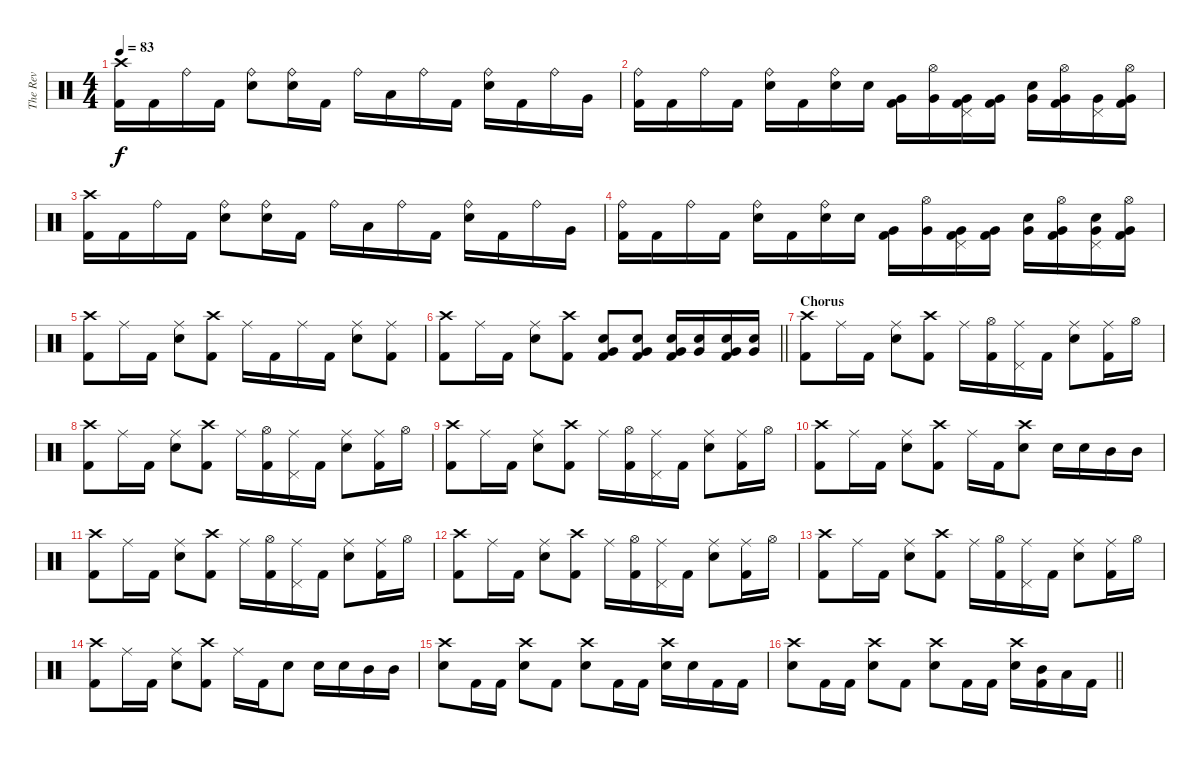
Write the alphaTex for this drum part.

\track ("The Rev" "The Rev") {instrument percussion}
\staff {score}
\articulation defaults
\ts (4 4)
\tempo 83
\clef neutral
\ks c
("Crash high (hit)" "Kick (hit) 2").16{dy f} "Kick (hit) 2".16 "Ride (bell)".16 "Kick (hit) 2".16 ("Ride (bell)" "Snare (hit) 2").8 ("Ride (bell)" "Snare (hit) 2").16 "Kick (hit) 2".16 "Ride (bell)".16 "Low Tom (hit)".16 "Ride (bell)".16 "Kick (hit) 2".16 ("Ride (bell)" "Snare (hit) 2").16 "Kick (hit) 2".16 "Ride (bell)".16 "Very Low Tom (hit)".16 |
("Ride (bell)" "Kick (hit) 2").16 "Kick (hit) 2".16 "Ride (bell)".16 "Kick (hit) 2".16 ("Ride (bell)" "Snare (hit) 2").16 "Kick (hit) 2".16 ("Ride (bell)" "Snare (hit) 2").16 "Snare (hit) 2".16 ("Very Low Tom (hit)" "Kick (hit) 2").16 ("Hi-Hat (open)" "Very Low Tom (hit)").16 ("Very Low Tom (hit)" "Pedal Hi-Hat (hit)" "Kick (hit) 2").16 ("Very Low Tom (hit)" "Kick (hit) 2").16 ("Snare (hit) 2" "Very Low Tom (hit)").16 ("Hi-Hat (open)" "Very Low Tom (hit)" "Kick (hit) 2").16 ("Very Low Tom (hit)" "Pedal Hi-Hat (hit)").16 ("Hi-Hat (open)" "Very Low Tom (hit)" "Kick (hit) 2").16 |
("Crash high (hit)" "Kick (hit) 2").16 "Kick (hit) 2".16 "Ride (bell)".16 "Kick (hit) 2".16 ("Ride (bell)" "Snare (hit) 2").8 ("Ride (bell)" "Snare (hit) 2").16 "Kick (hit) 2".16 "Ride (bell)".16 "Low Tom (hit)".16 "Ride (bell)".16 "Kick (hit) 2".16 ("Ride (bell)" "Snare (hit) 2").16 "Kick (hit) 2".16 "Ride (bell)".16 "Very Low Tom (hit)".16 |
("Ride (bell)" "Kick (hit) 2").16 "Kick (hit) 2".16 "Ride (bell)".16 "Kick (hit) 2".16 ("Ride (bell)" "Snare (hit) 2").16 "Kick (hit) 2".16 ("Ride (bell)" "Snare (hit) 2").16 "Snare (hit) 2".16 ("Very Low Tom (hit)" "Kick (hit) 2").16 ("Hi-Hat (open)" "Very Low Tom (hit)").16 ("Very Low Tom (hit)" "Pedal Hi-Hat (hit)" "Kick (hit) 2").16 ("Very Low Tom (hit)" "Kick (hit) 2").16 ("Snare (hit) 2" "Very Low Tom (hit)").16 ("Hi-Hat (open)" "Very Low Tom (hit)" "Kick (hit) 2").16 ("Snare (hit) 2" "Very Low Tom (hit)" "Pedal Hi-Hat (hit)").16 ("Hi-Hat (open)" "Very Low Tom (hit)" "Kick (hit) 2").16 |
("Crash high (hit)" "Kick (hit) 2").8 "Ride (middle)".16 "Kick (hit) 2".16 ("Ride (middle)" "Snare (hit) 2").8 ("Crash high (hit)" "Kick (hit) 2").8 "Ride (middle)".16 "Kick (hit) 2".16 "Ride (middle)".16 "Kick (hit) 2".16 ("Ride (middle)" "Snare (hit) 2").8 ("Ride (middle)" "Kick (hit) 2").8 |
\barLineRight lightlight
("Crash high (hit)" "Kick (hit) 2").8 "Ride (middle)".16 "Kick (hit) 2".16 ("Ride (middle)" "Snare (hit) 2").8 ("Crash high (hit)" "Kick (hit) 2").8 ("Snare (hit) 2" "Very Low Tom (hit)" "Kick (hit) 2").8 ("Snare (hit) 2" "Very Low Tom (hit)" "Kick (hit) 2").8 ("Snare (hit) 2" "Very Low Tom (hit)" "Kick (hit) 2").16 ("Snare (hit) 2" "Very Low Tom (hit)").16 ("Snare (hit) 2" "Very Low Tom (hit)" "Kick (hit) 2").16 ("Snare (hit) 2" "Very Low Tom (hit)").16 |
\section ("" "Chorus")
("Crash high (hit)" "Kick (hit) 2").8 "Ride (middle)".16 "Kick (hit) 2".16 ("Ride (middle)" "Snare (hit) 2").8 ("Crash high (hit)" "Kick (hit) 2").8 "Ride (middle)".16 ("Hi-Hat (open)" "Kick (hit) 2").16 ("Ride (middle)" "Pedal Hi-Hat (hit)").16 "Kick (hit) 2".16 ("Ride (middle)" "Snare (hit) 2").8 ("Ride (middle)" "Kick (hit) 2").16 "Hi-Hat (open)".16 |
("Crash high (hit)" "Kick (hit) 2").8 "Ride (middle)".16 "Kick (hit) 2".16 ("Ride (middle)" "Snare (hit) 2").8 ("Crash high (hit)" "Kick (hit) 2").8 "Ride (middle)".16 ("Hi-Hat (open)" "Kick (hit) 2").16 ("Ride (middle)" "Pedal Hi-Hat (hit)").16 "Kick (hit) 2".16 ("Ride (middle)" "Snare (hit) 2").8 ("Ride (middle)" "Kick (hit) 2").16 "Hi-Hat (open)".16 |
("Crash high (hit)" "Kick (hit) 2").8 "Ride (middle)".16 "Kick (hit) 2".16 ("Ride (middle)" "Snare (hit) 2").8 ("Crash high (hit)" "Kick (hit) 2").8 "Ride (middle)".16 ("Hi-Hat (open)" "Kick (hit) 2").16 ("Ride (middle)" "Pedal Hi-Hat (hit)").16 "Kick (hit) 2".16 ("Ride (middle)" "Snare (hit) 2").8 ("Ride (middle)" "Kick (hit) 2").16 "Hi-Hat (open)".16 |
("Crash high (hit)" "Kick (hit) 2").8 "Ride (middle)".16 "Kick (hit) 2".16 ("Ride (middle)" "Snare (hit) 2").8 ("Crash high (hit)" "Kick (hit) 2").8 "Ride (middle)".16 "Kick (hit) 2".16 ("Crash high (hit)" "Snare (hit) 2").8 "Snare (hit) 2".16 "Snare (hit) 2".16 "Mid Tom (hit)".16 "Mid Tom (hit)".16 |
("Crash high (hit)" "Kick (hit) 2").8 "Ride (middle)".16 "Kick (hit) 2".16 ("Ride (middle)" "Snare (hit) 2").8 ("Crash high (hit)" "Kick (hit) 2").8 "Ride (middle)".16 ("Hi-Hat (open)" "Kick (hit) 2").16 ("Ride (middle)" "Pedal Hi-Hat (hit)").16 "Kick (hit) 2".16 ("Ride (middle)" "Snare (hit) 2").8 ("Ride (middle)" "Kick (hit) 2").16 "Hi-Hat (open)".16 |
("Crash high (hit)" "Kick (hit) 2").8 "Ride (middle)".16 "Kick (hit) 2".16 ("Ride (middle)" "Snare (hit) 2").8 ("Crash high (hit)" "Kick (hit) 2").8 "Ride (middle)".16 ("Hi-Hat (open)" "Kick (hit) 2").16 ("Ride (middle)" "Pedal Hi-Hat (hit)").16 "Kick (hit) 2".16 ("Ride (middle)" "Snare (hit) 2").8 ("Ride (middle)" "Kick (hit) 2").16 "Hi-Hat (open)".16 |
("Crash high (hit)" "Kick (hit) 2").8 "Ride (middle)".16 "Kick (hit) 2".16 ("Ride (middle)" "Snare (hit) 2").8 ("Crash high (hit)" "Kick (hit) 2").8 "Ride (middle)".16 ("Hi-Hat (open)" "Kick (hit) 2").16 ("Ride (middle)" "Pedal Hi-Hat (hit)").16 "Kick (hit) 2".16 ("Ride (middle)" "Snare (hit) 2").8 ("Ride (middle)" "Kick (hit) 2").16 "Hi-Hat (open)".16 |
("Crash high (hit)" "Kick (hit) 2").8 "Ride (middle)".16 "Kick (hit) 2".16 ("Ride (middle)" "Snare (hit) 2").8 ("Crash high (hit)" "Kick (hit) 2").8 "Ride (middle)".16 "Kick (hit) 2".16 "Snare (hit) 2".8 "Snare (hit) 2".16 "Snare (hit) 2".16 "Mid Tom (hit)".16 "Mid Tom (hit)".16 |
("Crash high (hit)" "Snare (hit) 2").8 "Kick (hit) 2".16 "Kick (hit) 2".16 ("Crash high (hit)" "Snare (hit) 2").8 "Kick (hit) 2".8 ("Crash high (hit)" "Snare (hit) 2").8 "Kick (hit) 2".16 "Kick (hit) 2".16 ("Crash high (hit)" "Snare (hit) 2").16 "Snare (hit) 2".16 "Kick (hit) 2".16 "Kick (hit) 2".16 |
\barLineRight lightlight
("Crash high (hit)" "Snare (hit) 2").8 "Kick (hit) 2".16 "Kick (hit) 2".16 ("Crash high (hit)" "Snare (hit) 2").8 "Kick (hit) 2".8 ("Crash high (hit)" "Snare (hit) 2").8 "Kick (hit) 2".16 "Kick (hit) 2".16 ("Crash high (hit)" "Snare (hit) 2").16 ("Mid Tom (hit)" "Kick (hit) 2").16 "Low Tom (hit)".16 "Kick (hit) 2".16
